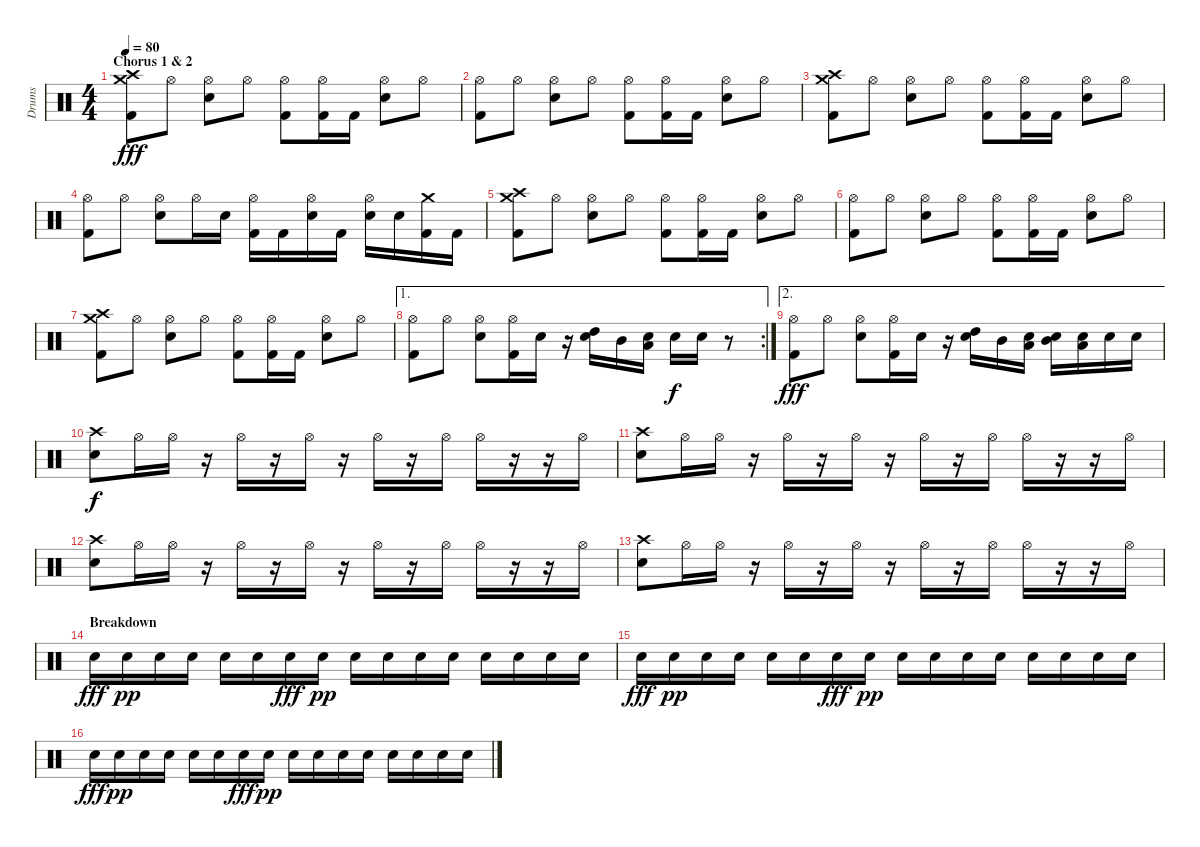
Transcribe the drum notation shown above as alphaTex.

\track ("Drums" "Drums") {instrument percussion}
\staff {score}
\articulation defaults
\ts (4 4)
\section ("" "Chorus 1 & 2")
\tempo 80
\clef neutral
\ks c
("Crash high (hit)" "Crash medium (hit)" "Kick (hit) 2").8{dy fff} "Hi-Hat (open)".8 ("Hi-Hat (open)" "Electric Snare (hit)").8 "Hi-Hat (open)".8 ("Hi-Hat (open)" "Kick (hit) 2").8 ("Hi-Hat (open)" "Kick (hit) 2").16 "Kick (hit) 2".16 ("Hi-Hat (open)" "Electric Snare (hit)").8 "Hi-Hat (open)".8 |
("Hi-Hat (open)" "Kick (hit) 2").8 "Hi-Hat (open)".8 ("Hi-Hat (open)" "Electric Snare (hit)").8 "Hi-Hat (open)".8 ("Hi-Hat (open)" "Kick (hit) 2").8 ("Hi-Hat (open)" "Kick (hit) 2").16 "Kick (hit) 2".16 ("Hi-Hat (open)" "Electric Snare (hit)").8 "Hi-Hat (open)".8 |
("Crash high (hit)" "Crash medium (hit)" "Kick (hit) 2").8 "Hi-Hat (open)".8 ("Hi-Hat (open)" "Electric Snare (hit)").8 "Hi-Hat (open)".8 ("Hi-Hat (open)" "Kick (hit) 2").8 ("Hi-Hat (open)" "Kick (hit) 2").16 "Kick (hit) 2".16 ("Hi-Hat (open)" "Electric Snare (hit)").8 "Hi-Hat (open)".8 |
("Hi-Hat (open)" "Kick (hit) 2").8 "Hi-Hat (open)".8 ("Hi-Hat (open)" "Electric Snare (hit)").8 "Hi-Hat (open)".16 "Electric Snare (hit)".16 ("Hi-Hat (open)" "Kick (hit) 2").16 "Kick (hit) 2".16 ("Hi-Hat (open)" "Electric Snare (hit)").16 "Kick (hit) 2".16 ("Hi-Hat (open)" "Electric Snare (hit)").16 "Electric Snare (hit)".16 ("Crash medium (hit)" "Kick (hit) 2").16 "Kick (hit) 2".16 |
("Crash high (hit)" "Crash medium (hit)" "Kick (hit) 2").8 "Hi-Hat (open)".8 ("Hi-Hat (open)" "Electric Snare (hit)").8 "Hi-Hat (open)".8 ("Hi-Hat (open)" "Kick (hit) 2").8 ("Hi-Hat (open)" "Kick (hit) 2").16 "Kick (hit) 2".16 ("Hi-Hat (open)" "Electric Snare (hit)").8 "Hi-Hat (open)".8 |
("Hi-Hat (open)" "Kick (hit) 2").8 "Hi-Hat (open)".8 ("Hi-Hat (open)" "Electric Snare (hit)").8 "Hi-Hat (open)".8 ("Hi-Hat (open)" "Kick (hit) 2").8 ("Hi-Hat (open)" "Kick (hit) 2").16 "Kick (hit) 2".16 ("Hi-Hat (open)" "Electric Snare (hit)").8 "Hi-Hat (open)".8 |
("Crash high (hit)" "Crash medium (hit)" "Kick (hit) 2").8 "Hi-Hat (open)".8 ("Hi-Hat (open)" "Electric Snare (hit)").8 "Hi-Hat (open)".8 ("Hi-Hat (open)" "Kick (hit) 2").8 ("Hi-Hat (open)" "Kick (hit) 2").16 "Kick (hit) 2".16 ("Hi-Hat (open)" "Electric Snare (hit)").8 "Hi-Hat (open)".8 |
\ae 1
\rc 2
("Hi-Hat (open)" "Kick (hit) 2").8 "Hi-Hat (open)".8 ("Hi-Hat (open)" "Electric Snare (hit)").8 ("Hi-Hat (open)" "Kick (hit) 2").16 "Electric Snare (hit)".16 r.16 ("High Tom (hit)" "Electric Snare (hit)").16 "Mid Tom (hit)".16 ("Low Tom (hit)" "Electric Snare (hit)").16 "Electric Snare (hit)".16{dy f} "Electric Snare (hit)".16 r.8 |
\ae 2
("Hi-Hat (open)" "Kick (hit) 2").8{dy fff} "Hi-Hat (open)".8 ("Hi-Hat (open)" "Electric Snare (hit)").8 ("Hi-Hat (open)" "Kick (hit) 2").16 "Electric Snare (hit)".16 r.16 ("High Tom (hit)" "Electric Snare (hit)").16 "Mid Tom (hit)".16 ("Low Tom (hit)" "Electric Snare (hit)").16 ("Mid Tom (hit)" "Electric Snare (hit)").16 ("Low Tom (hit)" "Electric Snare (hit)").16 "Electric Snare (hit)".16 "Electric Snare (hit)".16 |
("Crash high (hit)" "Electric Snare (hit)").8{dy f} "Hi-Hat (open)".16 "Hi-Hat (open)".16 r.16 "Hi-Hat (open)".16 r.16 "Hi-Hat (open)".16 r.16 "Hi-Hat (open)".16 r.16 "Hi-Hat (open)".16 "Hi-Hat (open)".16 r.16 r.16 "Hi-Hat (open)".16 |
("Crash high (hit)" "Electric Snare (hit)").8 "Hi-Hat (open)".16 "Hi-Hat (open)".16 r.16 "Hi-Hat (open)".16 r.16 "Hi-Hat (open)".16 r.16 "Hi-Hat (open)".16 r.16 "Hi-Hat (open)".16 "Hi-Hat (open)".16 r.16 r.16 "Hi-Hat (open)".16 |
("Crash high (hit)" "Electric Snare (hit)").8 "Hi-Hat (open)".16 "Hi-Hat (open)".16 r.16 "Hi-Hat (open)".16 r.16 "Hi-Hat (open)".16 r.16 "Hi-Hat (open)".16 r.16 "Hi-Hat (open)".16 "Hi-Hat (open)".16 r.16 r.16 "Hi-Hat (open)".16 |
("Crash high (hit)" "Electric Snare (hit)").8 "Hi-Hat (open)".16 "Hi-Hat (open)".16 r.16 "Hi-Hat (open)".16 r.16 "Hi-Hat (open)".16 r.16 "Hi-Hat (open)".16 r.16 "Hi-Hat (open)".16 "Hi-Hat (open)".16 r.16 r.16 "Hi-Hat (open)".16 |
\section ("" "Breakdown")
"Electric Snare (hit)".16{dy fff} "Electric Snare (hit)".16{dy pp} "Electric Snare (hit)".16 "Electric Snare (hit)".16 "Electric Snare (hit)".16 "Electric Snare (hit)".16 "Electric Snare (hit)".16{dy fff} "Electric Snare (hit)".16{dy pp} "Electric Snare (hit)".16 "Electric Snare (hit)".16 "Electric Snare (hit)".16 "Electric Snare (hit)".16 "Electric Snare (hit)".16 "Electric Snare (hit)".16 "Electric Snare (hit)".16 "Electric Snare (hit)".16 |
"Electric Snare (hit)".16{dy fff} "Electric Snare (hit)".16{dy pp} "Electric Snare (hit)".16 "Electric Snare (hit)".16 "Electric Snare (hit)".16 "Electric Snare (hit)".16 "Electric Snare (hit)".16{dy fff} "Electric Snare (hit)".16{dy pp} "Electric Snare (hit)".16 "Electric Snare (hit)".16 "Electric Snare (hit)".16 "Electric Snare (hit)".16 "Electric Snare (hit)".16 "Electric Snare (hit)".16 "Electric Snare (hit)".16 "Electric Snare (hit)".16 |
"Electric Snare (hit)".16{dy fff} "Electric Snare (hit)".16{dy pp} "Electric Snare (hit)".16 "Electric Snare (hit)".16 "Electric Snare (hit)".16 "Electric Snare (hit)".16 "Electric Snare (hit)".16{dy fff} "Electric Snare (hit)".16{dy pp} "Electric Snare (hit)".16 "Electric Snare (hit)".16 "Electric Snare (hit)".16 "Electric Snare (hit)".16 "Electric Snare (hit)".16 "Electric Snare (hit)".16 "Electric Snare (hit)".16 "Electric Snare (hit)".16
